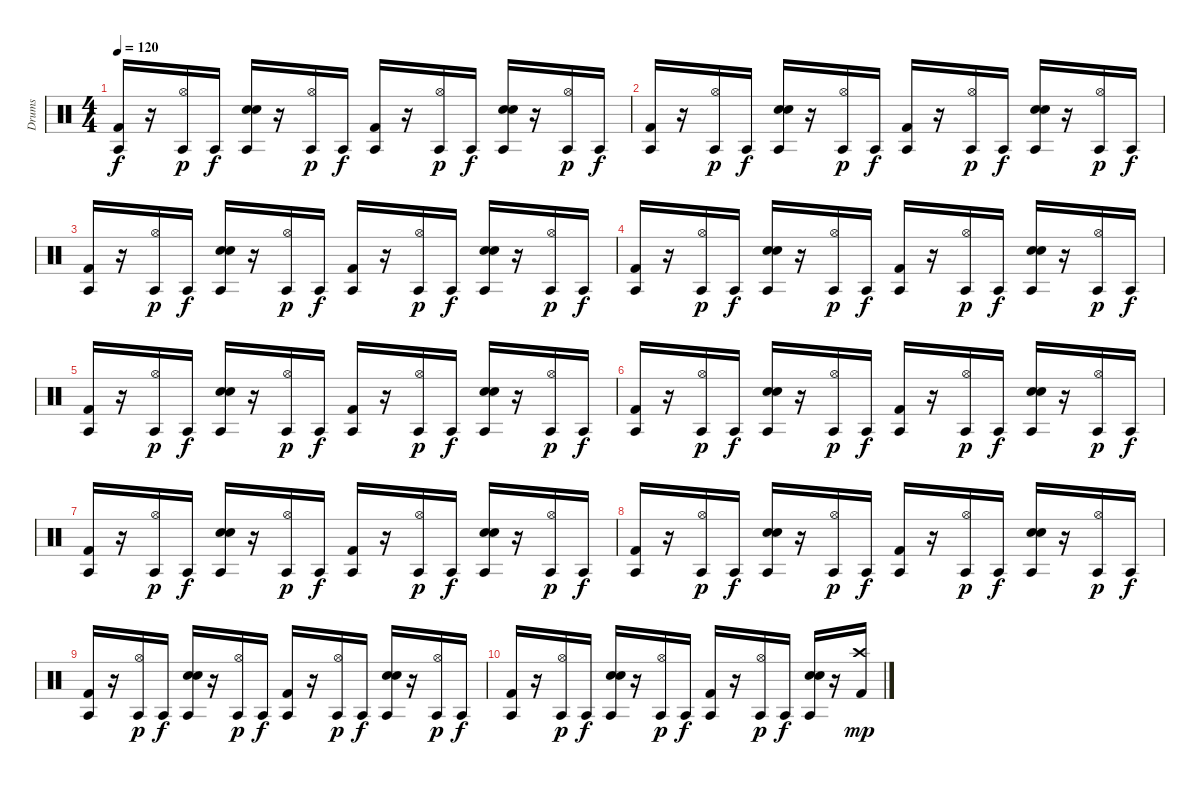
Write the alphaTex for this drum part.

\track ("Drums" "Drums") {instrument percussion}
\staff {score}
\articulation defaults
\ts (4 4)
\tempo 120
\clef neutral
\ks c
("Kick (hit) 2" "Agogo tow (hit)").16{dy f} r.16 ("Agogo tow (hit)" "Hi-Hat (open)").16{dy p} "Agogo tow (hit)".16{dy f} ("Snare (hit) 2" "Hand Clap (hit)" "Agogo tow (hit)").16 r.16 ("Agogo tow (hit)" "Hi-Hat (open)").16{dy p} "Agogo tow (hit)".16{dy f} ("Kick (hit) 2" "Agogo tow (hit)").16 r.16 ("Hi-Hat (open)" "Agogo tow (hit)").16{dy p} "Agogo tow (hit)".16{dy f} ("Snare (hit) 2" "Hand Clap (hit)" "Agogo tow (hit)").16 r.16 ("Hi-Hat (open)" "Agogo tow (hit)").16{dy p} "Agogo tow (hit)".16{dy f} |
("Kick (hit) 2" "Agogo tow (hit)").16 r.16 ("Agogo tow (hit)" "Hi-Hat (open)").16{dy p} "Agogo tow (hit)".16{dy f} ("Snare (hit) 2" "Hand Clap (hit)" "Agogo tow (hit)").16 r.16 ("Agogo tow (hit)" "Hi-Hat (open)").16{dy p} "Agogo tow (hit)".16{dy f} ("Kick (hit) 2" "Agogo tow (hit)").16 r.16 ("Hi-Hat (open)" "Agogo tow (hit)").16{dy p} "Agogo tow (hit)".16{dy f} ("Snare (hit) 2" "Hand Clap (hit)" "Agogo tow (hit)").16 r.16 ("Hi-Hat (open)" "Agogo tow (hit)").16{dy p} "Agogo tow (hit)".16{dy f} |
("Kick (hit) 2" "Agogo tow (hit)").16 r.16 ("Agogo tow (hit)" "Hi-Hat (open)").16{dy p} "Agogo tow (hit)".16{dy f} ("Snare (hit) 2" "Hand Clap (hit)" "Agogo tow (hit)").16 r.16 ("Agogo tow (hit)" "Hi-Hat (open)").16{dy p} "Agogo tow (hit)".16{dy f} ("Kick (hit) 2" "Agogo tow (hit)").16 r.16 ("Hi-Hat (open)" "Agogo tow (hit)").16{dy p} "Agogo tow (hit)".16{dy f} ("Snare (hit) 2" "Hand Clap (hit)" "Agogo tow (hit)").16 r.16 ("Hi-Hat (open)" "Agogo tow (hit)").16{dy p} "Agogo tow (hit)".16{dy f} |
("Kick (hit) 2" "Agogo tow (hit)").16 r.16 ("Agogo tow (hit)" "Hi-Hat (open)").16{dy p} "Agogo tow (hit)".16{dy f} ("Snare (hit) 2" "Hand Clap (hit)" "Agogo tow (hit)").16 r.16 ("Agogo tow (hit)" "Hi-Hat (open)").16{dy p} "Agogo tow (hit)".16{dy f} ("Kick (hit) 2" "Agogo tow (hit)").16 r.16 ("Hi-Hat (open)" "Agogo tow (hit)").16{dy p} "Agogo tow (hit)".16{dy f} ("Snare (hit) 2" "Hand Clap (hit)" "Agogo tow (hit)").16 r.16 ("Hi-Hat (open)" "Agogo tow (hit)").16{dy p} "Agogo tow (hit)".16{dy f} |
("Kick (hit) 2" "Agogo tow (hit)").16 r.16 ("Agogo tow (hit)" "Hi-Hat (open)").16{dy p} "Agogo tow (hit)".16{dy f} ("Snare (hit) 2" "Hand Clap (hit)" "Agogo tow (hit)").16 r.16 ("Agogo tow (hit)" "Hi-Hat (open)").16{dy p} "Agogo tow (hit)".16{dy f} ("Kick (hit) 2" "Agogo tow (hit)").16 r.16 ("Hi-Hat (open)" "Agogo tow (hit)").16{dy p} "Agogo tow (hit)".16{dy f} ("Snare (hit) 2" "Hand Clap (hit)" "Agogo tow (hit)").16 r.16 ("Hi-Hat (open)" "Agogo tow (hit)").16{dy p} "Agogo tow (hit)".16{dy f} |
("Kick (hit) 2" "Agogo tow (hit)").16 r.16 ("Agogo tow (hit)" "Hi-Hat (open)").16{dy p} "Agogo tow (hit)".16{dy f} ("Snare (hit) 2" "Hand Clap (hit)" "Agogo tow (hit)").16 r.16 ("Agogo tow (hit)" "Hi-Hat (open)").16{dy p} "Agogo tow (hit)".16{dy f} ("Kick (hit) 2" "Agogo tow (hit)").16 r.16 ("Hi-Hat (open)" "Agogo tow (hit)").16{dy p} "Agogo tow (hit)".16{dy f} ("Snare (hit) 2" "Hand Clap (hit)" "Agogo tow (hit)").16 r.16 ("Hi-Hat (open)" "Agogo tow (hit)").16{dy p} "Agogo tow (hit)".16{dy f} |
("Kick (hit) 2" "Agogo tow (hit)").16 r.16 ("Agogo tow (hit)" "Hi-Hat (open)").16{dy p} "Agogo tow (hit)".16{dy f} ("Snare (hit) 2" "Hand Clap (hit)" "Agogo tow (hit)").16 r.16 ("Agogo tow (hit)" "Hi-Hat (open)").16{dy p} "Agogo tow (hit)".16{dy f} ("Kick (hit) 2" "Agogo tow (hit)").16 r.16 ("Hi-Hat (open)" "Agogo tow (hit)").16{dy p} "Agogo tow (hit)".16{dy f} ("Snare (hit) 2" "Hand Clap (hit)" "Agogo tow (hit)").16 r.16 ("Hi-Hat (open)" "Agogo tow (hit)").16{dy p} "Agogo tow (hit)".16{dy f} |
("Kick (hit) 2" "Agogo tow (hit)").16 r.16 ("Agogo tow (hit)" "Hi-Hat (open)").16{dy p} "Agogo tow (hit)".16{dy f} ("Snare (hit) 2" "Hand Clap (hit)" "Agogo tow (hit)").16 r.16 ("Agogo tow (hit)" "Hi-Hat (open)").16{dy p} "Agogo tow (hit)".16{dy f} ("Kick (hit) 2" "Agogo tow (hit)").16 r.16 ("Hi-Hat (open)" "Agogo tow (hit)").16{dy p} "Agogo tow (hit)".16{dy f} ("Snare (hit) 2" "Hand Clap (hit)" "Agogo tow (hit)").16 r.16 ("Hi-Hat (open)" "Agogo tow (hit)").16{dy p} "Agogo tow (hit)".16{dy f} |
("Kick (hit) 2" "Agogo tow (hit)").16 r.16 ("Agogo tow (hit)" "Hi-Hat (open)").16{dy p} "Agogo tow (hit)".16{dy f} ("Snare (hit) 2" "Hand Clap (hit)" "Agogo tow (hit)").16 r.16 ("Agogo tow (hit)" "Hi-Hat (open)").16{dy p} "Agogo tow (hit)".16{dy f} ("Kick (hit) 2" "Agogo tow (hit)").16 r.16 ("Hi-Hat (open)" "Agogo tow (hit)").16{dy p} "Agogo tow (hit)".16{dy f} ("Snare (hit) 2" "Hand Clap (hit)" "Agogo tow (hit)").16 r.16 ("Hi-Hat (open)" "Agogo tow (hit)").16{dy p} "Agogo tow (hit)".16{dy f} |
("Kick (hit) 2" "Agogo tow (hit)").16 r.16 ("Agogo tow (hit)" "Hi-Hat (open)").16{dy p} "Agogo tow (hit)".16{dy f} ("Snare (hit) 2" "Hand Clap (hit)" "Agogo tow (hit)").16 r.16 ("Agogo tow (hit)" "Hi-Hat (open)").16{dy p} "Agogo tow (hit)".16{dy f} ("Kick (hit) 2" "Agogo tow (hit)").16 r.16 ("Hi-Hat (open)" "Agogo tow (hit)").16{dy p} "Agogo tow (hit)".16{dy f} ("Snare (hit) 2" "Hand Clap (hit)" "Agogo tow (hit)").16 r.16 ("Kick (hit) 2" "Crash high (hit)").16{dy mp}
